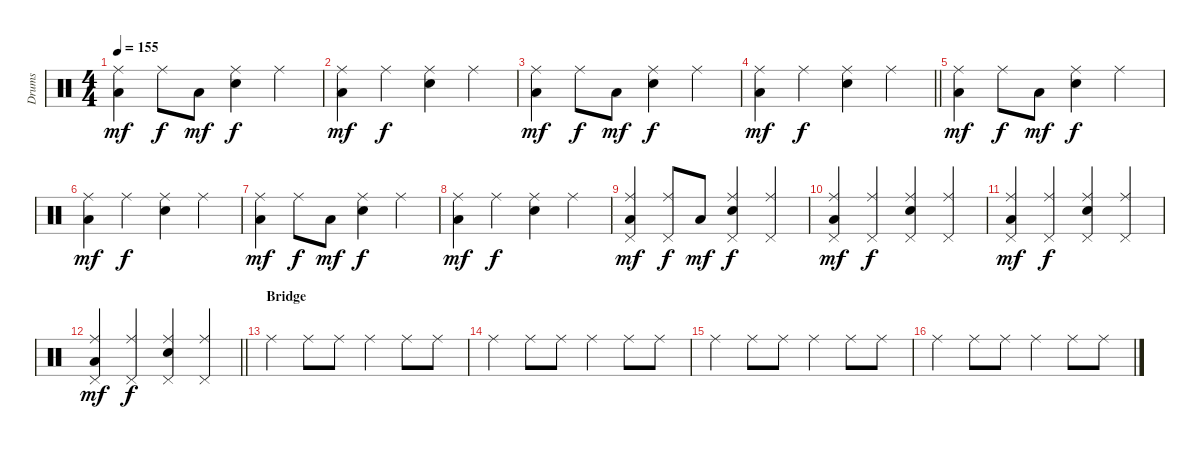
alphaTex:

\track ("Drums" "Drums") {instrument percussion}
\staff {score}
\articulation defaults
\ts (4 4)
\tempo 155
\clef neutral
\ks c
("Ride (middle)" "Low Floor Tom (hit)").4{dy mf} "Ride (middle)".8{dy f} "Low Floor Tom (hit)".8{dy mf} ("Ride (middle)" "Electric Snare (hit)").4{dy f} "Ride (middle)".4 |
("Ride (middle)" "Low Floor Tom (hit)").4{dy mf} "Ride (middle)".4{dy f} ("Ride (middle)" "Electric Snare (hit)").4 "Ride (middle)".4 |
("Ride (middle)" "Low Floor Tom (hit)").4{dy mf} "Ride (middle)".8{dy f} "Low Floor Tom (hit)".8{dy mf} ("Ride (middle)" "Electric Snare (hit)").4{dy f} "Ride (middle)".4 |
\barLineRight lightlight
("Ride (middle)" "Low Floor Tom (hit)").4{dy mf} "Ride (middle)".4{dy f} ("Ride (middle)" "Electric Snare (hit)").4 "Ride (middle)".4 |
("Ride (middle)" "Low Floor Tom (hit)").4{dy mf} "Ride (middle)".8{dy f} "Low Floor Tom (hit)".8{dy mf} ("Ride (middle)" "Electric Snare (hit)").4{dy f} "Ride (middle)".4 |
("Ride (middle)" "Low Floor Tom (hit)").4{dy mf} "Ride (middle)".4{dy f} ("Ride (middle)" "Electric Snare (hit)").4 "Ride (middle)".4 |
("Ride (middle)" "Low Floor Tom (hit)").4{dy mf} "Ride (middle)".8{dy f} "Low Floor Tom (hit)".8{dy mf} ("Ride (middle)" "Electric Snare (hit)").4{dy f} "Ride (middle)".4 |
("Ride (middle)" "Low Floor Tom (hit)").4{dy mf} "Ride (middle)".4{dy f} ("Ride (middle)" "Electric Snare (hit)").4 "Ride (middle)".4 |
("Ride (middle)" "Low Floor Tom (hit)" "Pedal Hi-Hat (hit)").4{dy mf} ("Ride (middle)" "Pedal Hi-Hat (hit)").8{dy f} "Low Floor Tom (hit)".8{dy mf} ("Ride (middle)" "Electric Snare (hit)" "Pedal Hi-Hat (hit)").4{dy f} ("Ride (middle)" "Pedal Hi-Hat (hit)").4 |
("Ride (middle)" "Low Floor Tom (hit)" "Pedal Hi-Hat (hit)").4{dy mf} ("Ride (middle)" "Pedal Hi-Hat (hit)").4{dy f} ("Ride (middle)" "Electric Snare (hit)" "Pedal Hi-Hat (hit)").4 ("Ride (middle)" "Pedal Hi-Hat (hit)").4 |
("Ride (middle)" "Low Floor Tom (hit)" "Pedal Hi-Hat (hit)").4{dy mf} ("Ride (middle)" "Pedal Hi-Hat (hit)").4{dy f} ("Ride (middle)" "Electric Snare (hit)" "Pedal Hi-Hat (hit)").4 ("Ride (middle)" "Pedal Hi-Hat (hit)").4 |
\barLineRight lightlight
("Ride (middle)" "Low Floor Tom (hit)" "Pedal Hi-Hat (hit)").4{dy mf} ("Ride (middle)" "Pedal Hi-Hat (hit)").4{dy f} ("Ride (middle)" "Electric Snare (hit)" "Pedal Hi-Hat (hit)").4 ("Ride (middle)" "Pedal Hi-Hat (hit)").4 |
\section ("" "Bridge")
"Ride (middle)".4 "Ride (middle)".8 "Ride (middle)".8 "Ride (middle)".4 "Ride (middle)".8 "Ride (middle)".8 |
"Ride (middle)".4 "Ride (middle)".8 "Ride (middle)".8 "Ride (middle)".4 "Ride (middle)".8 "Ride (middle)".8 |
"Ride (middle)".4 "Ride (middle)".8 "Ride (middle)".8 "Ride (middle)".4 "Ride (middle)".8 "Ride (middle)".8 |
"Ride (middle)".4 "Ride (middle)".8 "Ride (middle)".8 "Ride (middle)".4 "Ride (middle)".8 "Ride (middle)".8
